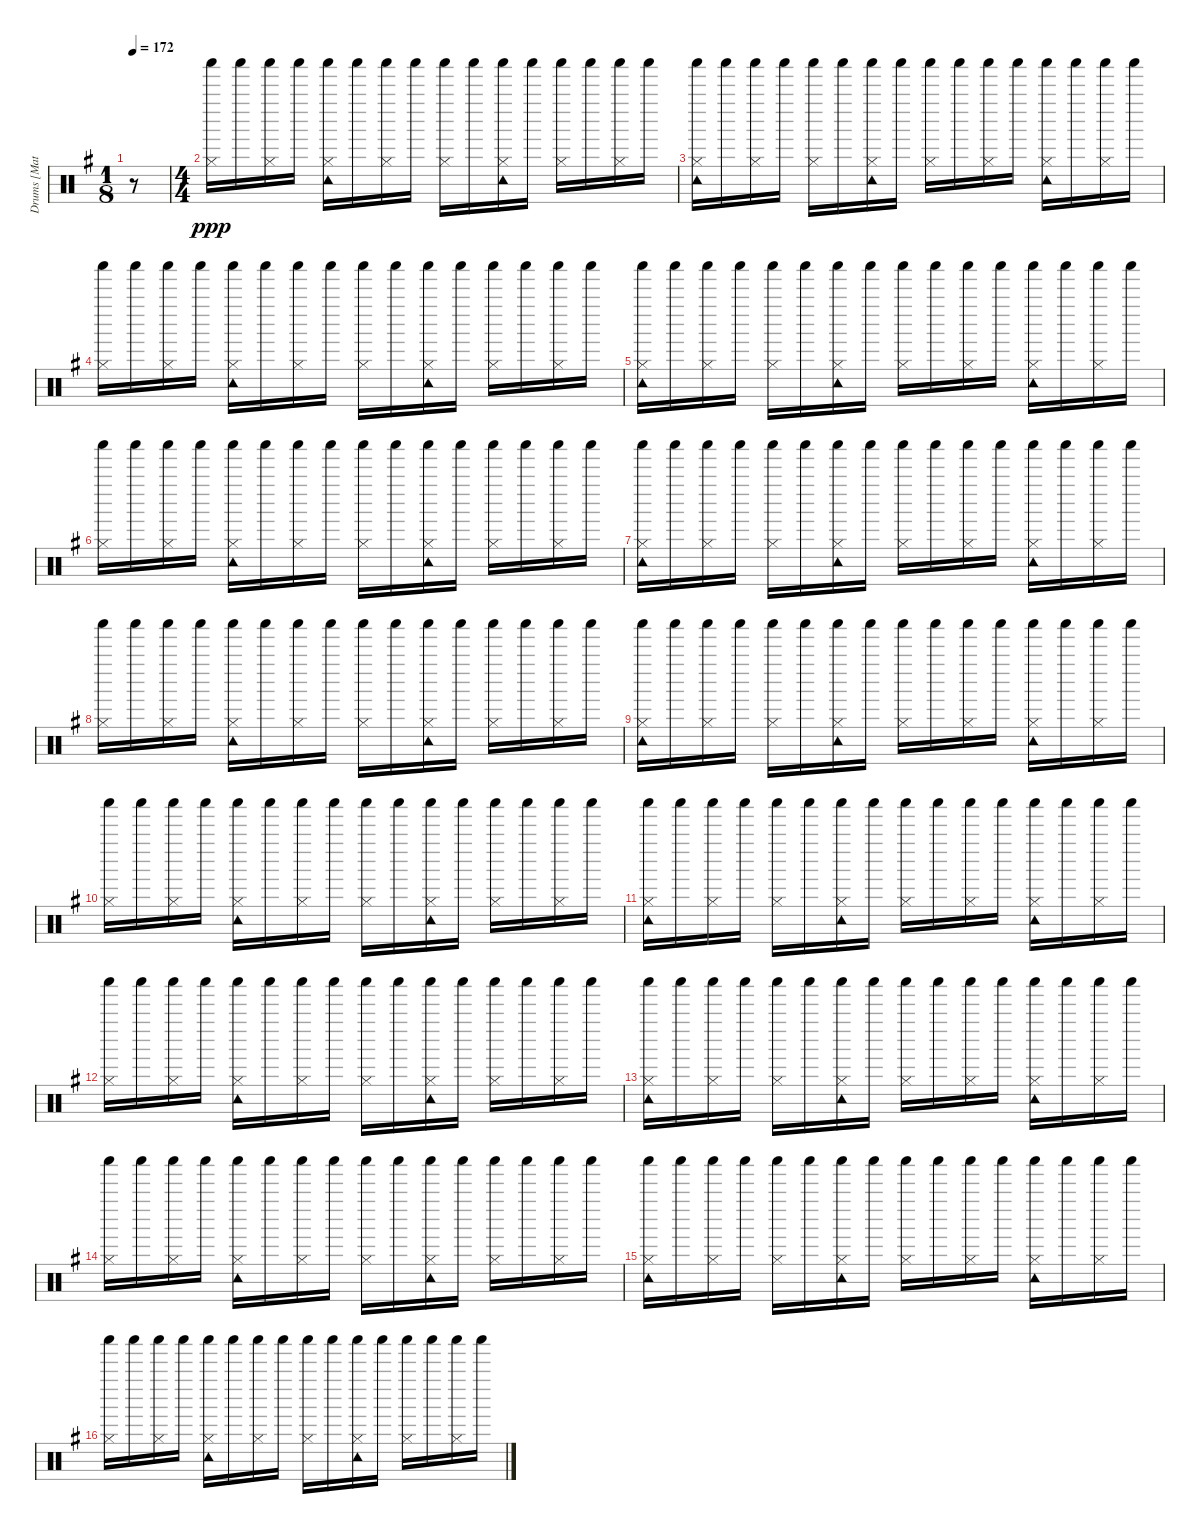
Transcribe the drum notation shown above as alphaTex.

\track ("Drums [Matt]" "Drums [Mat") {instrument percussion}
\staff {score}
\articulation defaults
\ts (1 8)
\tempo 172
\clef neutral
\ks g
r.8{dy ppp} |
\ts (4 4)
("Hi-Hat (closed)" "Shaker (hit)").16 "Shaker (hit)".16 ("Hi-Hat (closed)" "Shaker (hit)").16 "Shaker (hit)".16 ("Hi-Hat (closed)" "Tambourine (hit)" "Shaker (hit)").16 "Shaker (hit)".16 ("Hi-Hat (closed)" "Shaker (hit)").16 "Shaker (hit)".16 ("Hi-Hat (closed)" "Shaker (hit)").16 "Shaker (hit)".16 ("Hi-Hat (closed)" "Tambourine (hit)" "Shaker (hit)").16 "Shaker (hit)".16 ("Hi-Hat (closed)" "Shaker (hit)").16 "Shaker (hit)".16 ("Hi-Hat (closed)" "Shaker (hit)").16 "Shaker (hit)".16 |
("Hi-Hat (closed)" "Tambourine (hit)" "Shaker (hit)").16 "Shaker (hit)".16 ("Hi-Hat (closed)" "Shaker (hit)").16 "Shaker (hit)".16 ("Hi-Hat (closed)" "Shaker (hit)").16 "Shaker (hit)".16 ("Hi-Hat (closed)" "Tambourine (hit)" "Shaker (hit)").16 "Shaker (hit)".16 ("Hi-Hat (closed)" "Shaker (hit)").16 "Shaker (hit)".16 ("Hi-Hat (closed)" "Shaker (hit)").16 "Shaker (hit)".16 ("Hi-Hat (closed)" "Tambourine (hit)" "Shaker (hit)").16 "Shaker (hit)".16 ("Hi-Hat (closed)" "Shaker (hit)").16 "Shaker (hit)".16 |
("Hi-Hat (closed)" "Shaker (hit)").16 "Shaker (hit)".16 ("Hi-Hat (closed)" "Shaker (hit)").16 "Shaker (hit)".16 ("Hi-Hat (closed)" "Tambourine (hit)" "Shaker (hit)").16 "Shaker (hit)".16 ("Hi-Hat (closed)" "Shaker (hit)").16 "Shaker (hit)".16 ("Hi-Hat (closed)" "Shaker (hit)").16 "Shaker (hit)".16 ("Hi-Hat (closed)" "Tambourine (hit)" "Shaker (hit)").16 "Shaker (hit)".16 ("Hi-Hat (closed)" "Shaker (hit)").16 "Shaker (hit)".16 ("Hi-Hat (closed)" "Shaker (hit)").16 "Shaker (hit)".16 |
("Hi-Hat (closed)" "Tambourine (hit)" "Shaker (hit)").16 "Shaker (hit)".16 ("Hi-Hat (closed)" "Shaker (hit)").16 "Shaker (hit)".16 ("Hi-Hat (closed)" "Shaker (hit)").16 "Shaker (hit)".16 ("Hi-Hat (closed)" "Tambourine (hit)" "Shaker (hit)").16 "Shaker (hit)".16 ("Hi-Hat (closed)" "Shaker (hit)").16 "Shaker (hit)".16 ("Hi-Hat (closed)" "Shaker (hit)").16 "Shaker (hit)".16 ("Hi-Hat (closed)" "Tambourine (hit)" "Shaker (hit)").16 "Shaker (hit)".16 ("Hi-Hat (closed)" "Shaker (hit)").16 "Shaker (hit)".16 |
("Hi-Hat (closed)" "Shaker (hit)").16 "Shaker (hit)".16 ("Hi-Hat (closed)" "Shaker (hit)").16 "Shaker (hit)".16 ("Hi-Hat (closed)" "Tambourine (hit)" "Shaker (hit)").16 "Shaker (hit)".16 ("Hi-Hat (closed)" "Shaker (hit)").16 "Shaker (hit)".16 ("Hi-Hat (closed)" "Shaker (hit)").16 "Shaker (hit)".16 ("Hi-Hat (closed)" "Tambourine (hit)" "Shaker (hit)").16 "Shaker (hit)".16 ("Hi-Hat (closed)" "Shaker (hit)").16 "Shaker (hit)".16 ("Hi-Hat (closed)" "Shaker (hit)").16 "Shaker (hit)".16 |
("Hi-Hat (closed)" "Tambourine (hit)" "Shaker (hit)").16 "Shaker (hit)".16 ("Hi-Hat (closed)" "Shaker (hit)").16 "Shaker (hit)".16 ("Hi-Hat (closed)" "Shaker (hit)").16 "Shaker (hit)".16 ("Hi-Hat (closed)" "Tambourine (hit)" "Shaker (hit)").16 "Shaker (hit)".16 ("Hi-Hat (closed)" "Shaker (hit)").16 "Shaker (hit)".16 ("Hi-Hat (closed)" "Shaker (hit)").16 "Shaker (hit)".16 ("Hi-Hat (closed)" "Tambourine (hit)" "Shaker (hit)").16 "Shaker (hit)".16 ("Hi-Hat (closed)" "Shaker (hit)").16 "Shaker (hit)".16 |
("Hi-Hat (closed)" "Shaker (hit)").16 "Shaker (hit)".16 ("Hi-Hat (closed)" "Shaker (hit)").16 "Shaker (hit)".16 ("Hi-Hat (closed)" "Tambourine (hit)" "Shaker (hit)").16 "Shaker (hit)".16 ("Hi-Hat (closed)" "Shaker (hit)").16 "Shaker (hit)".16 ("Hi-Hat (closed)" "Shaker (hit)").16 "Shaker (hit)".16 ("Hi-Hat (closed)" "Tambourine (hit)" "Shaker (hit)").16 "Shaker (hit)".16 ("Hi-Hat (closed)" "Shaker (hit)").16 "Shaker (hit)".16 ("Hi-Hat (closed)" "Shaker (hit)").16 "Shaker (hit)".16 |
("Hi-Hat (closed)" "Tambourine (hit)" "Shaker (hit)").16 "Shaker (hit)".16 ("Hi-Hat (closed)" "Shaker (hit)").16 "Shaker (hit)".16 ("Hi-Hat (closed)" "Shaker (hit)").16 "Shaker (hit)".16 ("Hi-Hat (closed)" "Tambourine (hit)" "Shaker (hit)").16 "Shaker (hit)".16 ("Hi-Hat (closed)" "Shaker (hit)").16 "Shaker (hit)".16 ("Hi-Hat (closed)" "Shaker (hit)").16 "Shaker (hit)".16 ("Hi-Hat (closed)" "Tambourine (hit)" "Shaker (hit)").16 "Shaker (hit)".16 ("Hi-Hat (closed)" "Shaker (hit)").16 "Shaker (hit)".16 |
("Hi-Hat (closed)" "Shaker (hit)").16 "Shaker (hit)".16 ("Hi-Hat (closed)" "Shaker (hit)").16 "Shaker (hit)".16 ("Hi-Hat (closed)" "Tambourine (hit)" "Shaker (hit)").16 "Shaker (hit)".16 ("Hi-Hat (closed)" "Shaker (hit)").16 "Shaker (hit)".16 ("Hi-Hat (closed)" "Shaker (hit)").16 "Shaker (hit)".16 ("Hi-Hat (closed)" "Tambourine (hit)" "Shaker (hit)").16 "Shaker (hit)".16 ("Hi-Hat (closed)" "Shaker (hit)").16 "Shaker (hit)".16 ("Hi-Hat (closed)" "Shaker (hit)").16 "Shaker (hit)".16 |
("Hi-Hat (closed)" "Tambourine (hit)" "Shaker (hit)").16 "Shaker (hit)".16 ("Hi-Hat (closed)" "Shaker (hit)").16 "Shaker (hit)".16 ("Hi-Hat (closed)" "Shaker (hit)").16 "Shaker (hit)".16 ("Hi-Hat (closed)" "Tambourine (hit)" "Shaker (hit)").16 "Shaker (hit)".16 ("Hi-Hat (closed)" "Shaker (hit)").16 "Shaker (hit)".16 ("Hi-Hat (closed)" "Shaker (hit)").16 "Shaker (hit)".16 ("Hi-Hat (closed)" "Tambourine (hit)" "Shaker (hit)").16 "Shaker (hit)".16 ("Hi-Hat (closed)" "Shaker (hit)").16 "Shaker (hit)".16 |
("Hi-Hat (closed)" "Shaker (hit)").16 "Shaker (hit)".16 ("Hi-Hat (closed)" "Shaker (hit)").16 "Shaker (hit)".16 ("Hi-Hat (closed)" "Tambourine (hit)" "Shaker (hit)").16 "Shaker (hit)".16 ("Hi-Hat (closed)" "Shaker (hit)").16 "Shaker (hit)".16 ("Hi-Hat (closed)" "Shaker (hit)").16 "Shaker (hit)".16 ("Hi-Hat (closed)" "Tambourine (hit)" "Shaker (hit)").16 "Shaker (hit)".16 ("Hi-Hat (closed)" "Shaker (hit)").16 "Shaker (hit)".16 ("Hi-Hat (closed)" "Shaker (hit)").16 "Shaker (hit)".16 |
("Hi-Hat (closed)" "Tambourine (hit)" "Shaker (hit)").16 "Shaker (hit)".16 ("Hi-Hat (closed)" "Shaker (hit)").16 "Shaker (hit)".16 ("Hi-Hat (closed)" "Shaker (hit)").16 "Shaker (hit)".16 ("Hi-Hat (closed)" "Tambourine (hit)" "Shaker (hit)").16 "Shaker (hit)".16 ("Hi-Hat (closed)" "Shaker (hit)").16 "Shaker (hit)".16 ("Hi-Hat (closed)" "Shaker (hit)").16 "Shaker (hit)".16 ("Hi-Hat (closed)" "Tambourine (hit)" "Shaker (hit)").16 "Shaker (hit)".16 ("Hi-Hat (closed)" "Shaker (hit)").16 "Shaker (hit)".16 |
("Hi-Hat (closed)" "Shaker (hit)").16 "Shaker (hit)".16 ("Hi-Hat (closed)" "Shaker (hit)").16 "Shaker (hit)".16 ("Hi-Hat (closed)" "Tambourine (hit)" "Shaker (hit)").16 "Shaker (hit)".16 ("Hi-Hat (closed)" "Shaker (hit)").16 "Shaker (hit)".16 ("Hi-Hat (closed)" "Shaker (hit)").16 "Shaker (hit)".16 ("Hi-Hat (closed)" "Tambourine (hit)" "Shaker (hit)").16 "Shaker (hit)".16 ("Hi-Hat (closed)" "Shaker (hit)").16 "Shaker (hit)".16 ("Hi-Hat (closed)" "Shaker (hit)").16 "Shaker (hit)".16 |
("Hi-Hat (closed)" "Tambourine (hit)" "Shaker (hit)").16 "Shaker (hit)".16 ("Hi-Hat (closed)" "Shaker (hit)").16 "Shaker (hit)".16 ("Hi-Hat (closed)" "Shaker (hit)").16 "Shaker (hit)".16 ("Hi-Hat (closed)" "Tambourine (hit)" "Shaker (hit)").16 "Shaker (hit)".16 ("Hi-Hat (closed)" "Shaker (hit)").16 "Shaker (hit)".16 ("Hi-Hat (closed)" "Shaker (hit)").16 "Shaker (hit)".16 ("Hi-Hat (closed)" "Tambourine (hit)" "Shaker (hit)").16 "Shaker (hit)".16 ("Hi-Hat (closed)" "Shaker (hit)").16 "Shaker (hit)".16 |
("Hi-Hat (closed)" "Shaker (hit)").16 "Shaker (hit)".16 ("Hi-Hat (closed)" "Shaker (hit)").16 "Shaker (hit)".16 ("Hi-Hat (closed)" "Tambourine (hit)" "Shaker (hit)").16 "Shaker (hit)".16 ("Hi-Hat (closed)" "Shaker (hit)").16 "Shaker (hit)".16 ("Hi-Hat (closed)" "Shaker (hit)").16 "Shaker (hit)".16 ("Hi-Hat (closed)" "Tambourine (hit)" "Shaker (hit)").16 "Shaker (hit)".16 ("Hi-Hat (closed)" "Shaker (hit)").16 "Shaker (hit)".16 ("Hi-Hat (closed)" "Shaker (hit)").16 "Shaker (hit)".16
